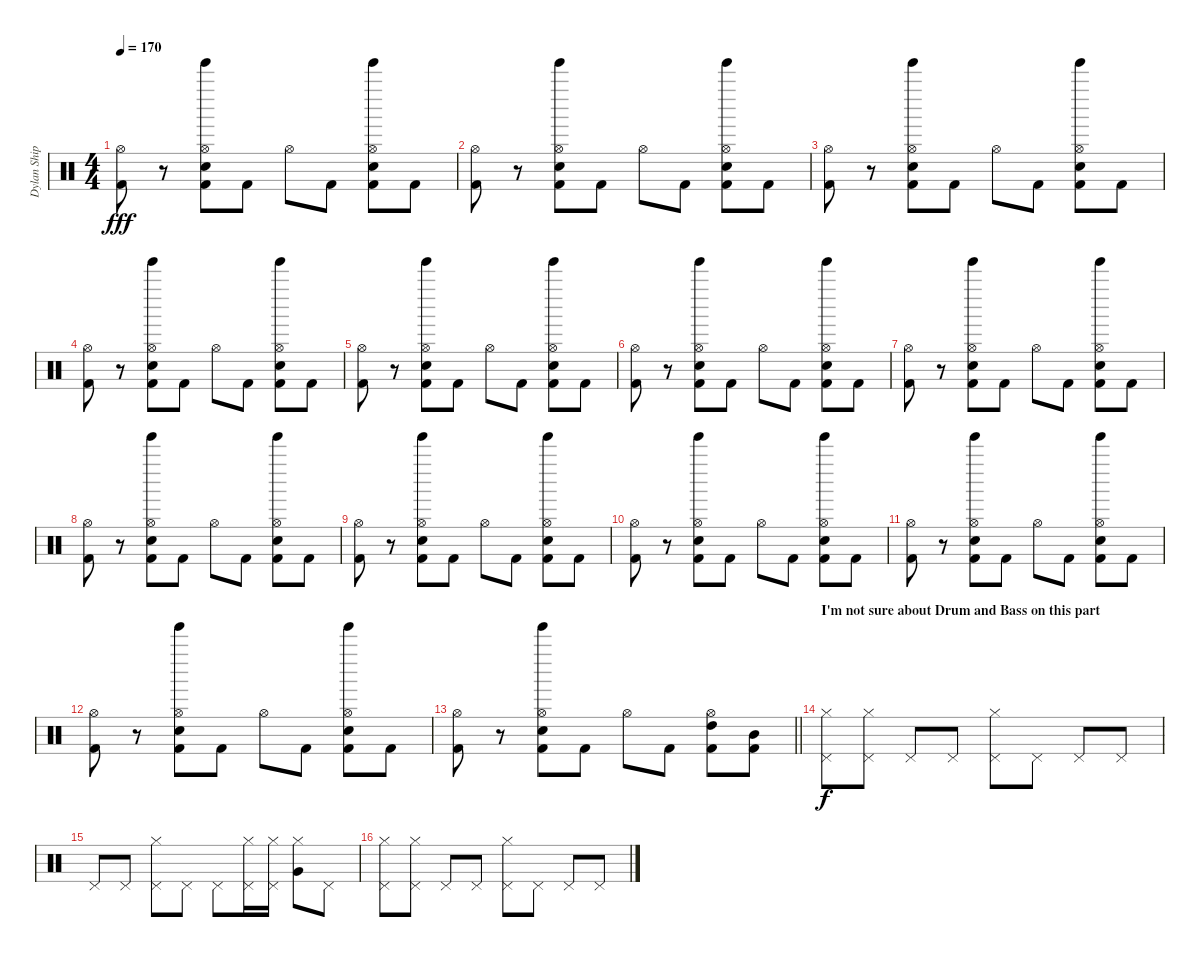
\track ("Dylan Shippey" "Dylan Ship") {instrument percussion}
\staff {score}
\articulation defaults
\ts (4 4)
\tempo 170
\clef neutral
\ks c
("Hi-Hat (open)" "Kick (hit) 2").8{dy fff} r.8 ("Tinkle Bell (hit)" "Electric Snare (hit)" "Hi-Hat (open)" "Kick (hit) 2").8 "Kick (hit) 2".8 "Hi-Hat (open)".8 "Kick (hit) 2".8 ("Tinkle Bell (hit)" "Electric Snare (hit)" "Hi-Hat (open)" "Kick (hit) 2").8 "Kick (hit) 2".8 |
("Hi-Hat (open)" "Kick (hit) 2").8 r.8 ("Tinkle Bell (hit)" "Electric Snare (hit)" "Hi-Hat (open)" "Kick (hit) 2").8 "Kick (hit) 2".8 "Hi-Hat (open)".8 "Kick (hit) 2".8 ("Tinkle Bell (hit)" "Electric Snare (hit)" "Hi-Hat (open)" "Kick (hit) 2").8 "Kick (hit) 2".8 |
("Hi-Hat (open)" "Kick (hit) 2").8 r.8 ("Tinkle Bell (hit)" "Electric Snare (hit)" "Hi-Hat (open)" "Kick (hit) 2").8 "Kick (hit) 2".8 "Hi-Hat (open)".8 "Kick (hit) 2".8 ("Tinkle Bell (hit)" "Electric Snare (hit)" "Hi-Hat (open)" "Kick (hit) 2").8 "Kick (hit) 2".8 |
("Hi-Hat (open)" "Kick (hit) 2").8 r.8 ("Tinkle Bell (hit)" "Electric Snare (hit)" "Hi-Hat (open)" "Kick (hit) 2").8 "Kick (hit) 2".8 "Hi-Hat (open)".8 "Kick (hit) 2".8 ("Tinkle Bell (hit)" "Electric Snare (hit)" "Hi-Hat (open)" "Kick (hit) 2").8 "Kick (hit) 2".8 |
("Hi-Hat (open)" "Kick (hit) 2").8 r.8 ("Tinkle Bell (hit)" "Electric Snare (hit)" "Hi-Hat (open)" "Kick (hit) 2").8 "Kick (hit) 2".8 "Hi-Hat (open)".8 "Kick (hit) 2".8 ("Tinkle Bell (hit)" "Electric Snare (hit)" "Hi-Hat (open)" "Kick (hit) 2").8 "Kick (hit) 2".8 |
("Hi-Hat (open)" "Kick (hit) 2").8 r.8 ("Tinkle Bell (hit)" "Electric Snare (hit)" "Hi-Hat (open)" "Kick (hit) 2").8 "Kick (hit) 2".8 "Hi-Hat (open)".8 "Kick (hit) 2".8 ("Tinkle Bell (hit)" "Electric Snare (hit)" "Hi-Hat (open)" "Kick (hit) 2").8 "Kick (hit) 2".8 |
("Hi-Hat (open)" "Kick (hit) 2").8 r.8 ("Tinkle Bell (hit)" "Electric Snare (hit)" "Hi-Hat (open)" "Kick (hit) 2").8 "Kick (hit) 2".8 "Hi-Hat (open)".8 "Kick (hit) 2".8 ("Tinkle Bell (hit)" "Electric Snare (hit)" "Hi-Hat (open)" "Kick (hit) 2").8 "Kick (hit) 2".8 |
("Hi-Hat (open)" "Kick (hit) 2").8 r.8 ("Tinkle Bell (hit)" "Electric Snare (hit)" "Hi-Hat (open)" "Kick (hit) 2").8 "Kick (hit) 2".8 "Hi-Hat (open)".8 "Kick (hit) 2".8 ("Tinkle Bell (hit)" "Electric Snare (hit)" "Hi-Hat (open)" "Kick (hit) 2").8 "Kick (hit) 2".8 |
("Hi-Hat (open)" "Kick (hit) 2").8 r.8 ("Tinkle Bell (hit)" "Electric Snare (hit)" "Hi-Hat (open)" "Kick (hit) 2").8 "Kick (hit) 2".8 "Hi-Hat (open)".8 "Kick (hit) 2".8 ("Tinkle Bell (hit)" "Electric Snare (hit)" "Hi-Hat (open)" "Kick (hit) 2").8 "Kick (hit) 2".8 |
("Hi-Hat (open)" "Kick (hit) 2").8 r.8 ("Tinkle Bell (hit)" "Electric Snare (hit)" "Hi-Hat (open)" "Kick (hit) 2").8 "Kick (hit) 2".8 "Hi-Hat (open)".8 "Kick (hit) 2".8 ("Tinkle Bell (hit)" "Electric Snare (hit)" "Hi-Hat (open)" "Kick (hit) 2").8 "Kick (hit) 2".8 |
("Hi-Hat (open)" "Kick (hit) 2").8 r.8 ("Tinkle Bell (hit)" "Electric Snare (hit)" "Hi-Hat (open)" "Kick (hit) 2").8 "Kick (hit) 2".8 "Hi-Hat (open)".8 "Kick (hit) 2".8 ("Tinkle Bell (hit)" "Electric Snare (hit)" "Hi-Hat (open)" "Kick (hit) 2").8 "Kick (hit) 2".8 |
("Hi-Hat (open)" "Kick (hit) 2").8 r.8 ("Tinkle Bell (hit)" "Electric Snare (hit)" "Hi-Hat (open)" "Kick (hit) 2").8 "Kick (hit) 2".8 "Hi-Hat (open)".8 "Kick (hit) 2".8 ("Tinkle Bell (hit)" "Electric Snare (hit)" "Hi-Hat (open)" "Kick (hit) 2").8 "Kick (hit) 2".8 |
\barLineRight lightlight
("Hi-Hat (open)" "Kick (hit) 2").8 r.8 ("Tinkle Bell (hit)" "Electric Snare (hit)" "Hi-Hat (open)" "Kick (hit) 2").8 "Kick (hit) 2".8 "Hi-Hat (open)".8 "Kick (hit) 2".8 ("Hi-Hat (open)" "High Tom (hit)" "Kick (hit) 2").8 ("Mid Tom (hit)" "Kick (hit) 2").8 |
\section ("" "I'm not sure about Drum and Bass on this part")
("Pedal Hi-Hat (hit)" "Hi-Hat (closed)").8{dy f} ("Pedal Hi-Hat (hit)" "Hi-Hat (closed)").8 "Pedal Hi-Hat (hit)".8 "Pedal Hi-Hat (hit)".8 ("Pedal Hi-Hat (hit)" "Hi-Hat (closed)").8 "Pedal Hi-Hat (hit)".8 "Pedal Hi-Hat (hit)".8 "Pedal Hi-Hat (hit)".8 |
"Pedal Hi-Hat (hit)".8 "Pedal Hi-Hat (hit)".8 ("Pedal Hi-Hat (hit)" "Hi-Hat (closed)").8 "Pedal Hi-Hat (hit)".8 "Pedal Hi-Hat (hit)".8 ("Pedal Hi-Hat (hit)" "Hi-Hat (closed)").16 ("Pedal Hi-Hat (hit)" "Hi-Hat (closed)").16 ("Very Low Tom (hit)" "Hi-Hat (closed)").8 "Pedal Hi-Hat (hit)".8 |
("Pedal Hi-Hat (hit)" "Hi-Hat (closed)").8 ("Pedal Hi-Hat (hit)" "Hi-Hat (closed)").8 "Pedal Hi-Hat (hit)".8 "Pedal Hi-Hat (hit)".8 ("Pedal Hi-Hat (hit)" "Hi-Hat (closed)").8 "Pedal Hi-Hat (hit)".8 "Pedal Hi-Hat (hit)".8 "Pedal Hi-Hat (hit)".8
